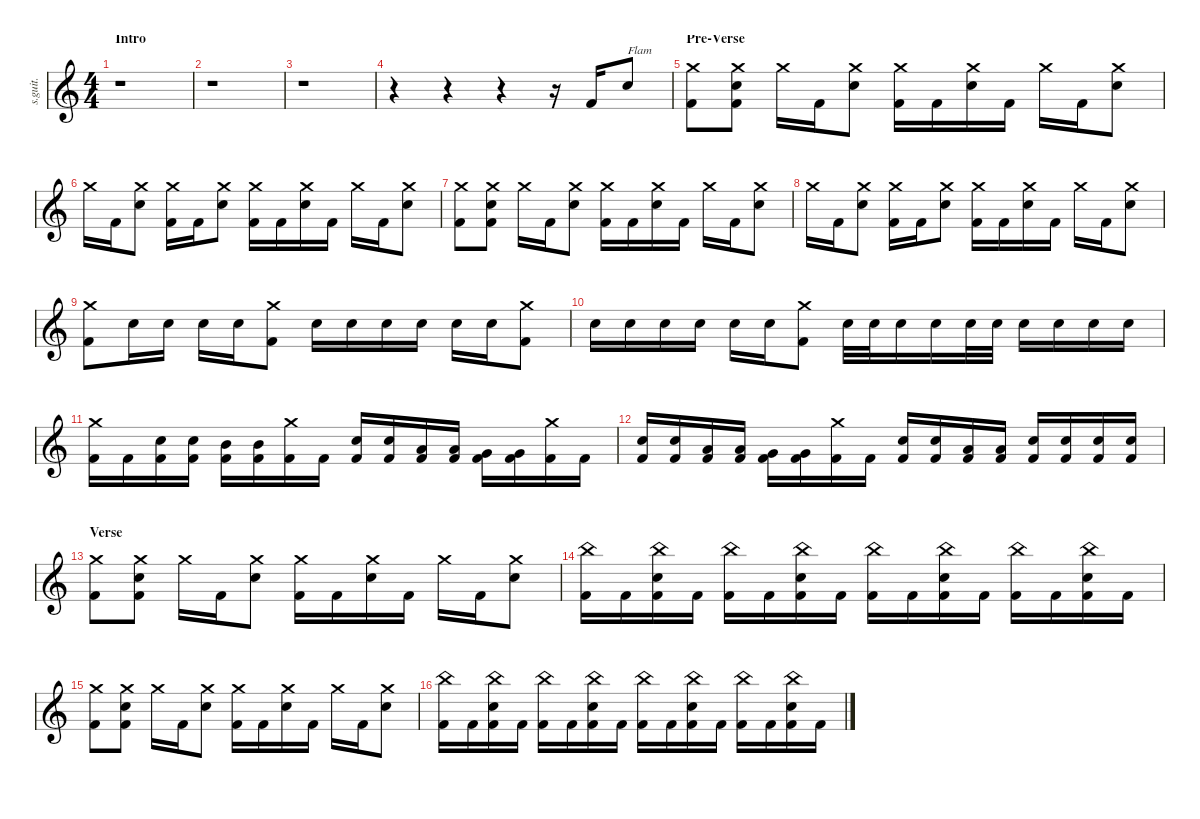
\defaultSystemsLayout 4
\hideDynamics
\bracketExtendMode nobrackets
\track ("The Rev" "s.guit.") {instrument percussion}
\staff {score}
\articulation defaults
\ts (4 4)
\beaming (8 2 2 2 2)
\section ("" "Intro")
\tempo (125 hide)
\clef g2
\ks c
r.1{dy fff} |
r.1 |
r.1 |
r.4 r.4 r.4 r.16 "Kick (hit) 2".16{lyrics (0 "") lyrics (1 "") lyrics (2 "") lyrics (3 "") lyrics (4 "")} "Electric Snare (hit)".8{txt "Flam" lyrics (0 "") lyrics (1 "") lyrics (2 "") lyrics (3 "") lyrics (4 "")} |
\section ("" "Pre-Verse")
("Crash medium (hit)" "Kick (hit) 2").8{lyrics (0 "") lyrics (1 "") lyrics (2 "") lyrics (3 "") lyrics (4 "")} ("Crash medium (hit)" "Electric Snare (hit)" "Kick (hit) 2").8{lyrics (0 "") lyrics (1 "") lyrics (2 "") lyrics (3 "") lyrics (4 "") dy f} "Crash medium (hit)".16{lyrics (0 "") lyrics (1 "") lyrics (2 "") lyrics (3 "") lyrics (4 "") dy mp} "Kick (hit) 2".16{lyrics (0 "") lyrics (1 "") lyrics (2 "") lyrics (3 "") lyrics (4 "") dy fff} ("Crash medium (hit)" "Electric Snare (hit)").8{lyrics (0 "") lyrics (1 "") lyrics (2 "") lyrics (3 "") lyrics (4 "") dy f} ("Crash medium (hit)" "Kick (hit) 2").16{lyrics (0 "") lyrics (1 "") lyrics (2 "") lyrics (3 "") lyrics (4 "") dy mp} "Kick (hit) 2".16{lyrics (0 "") lyrics (1 "") lyrics (2 "") lyrics (3 "") lyrics (4 "") dy fff} ("Crash medium (hit)" "Electric Snare (hit)").16{lyrics (0 "") lyrics (1 "") lyrics (2 "") lyrics (3 "") lyrics (4 "") dy f} "Kick (hit) 2".16{lyrics (0 "") lyrics (1 "") lyrics (2 "") lyrics (3 "") lyrics (4 "") dy fff} "Crash medium (hit)".16{lyrics (0 "") lyrics (1 "") lyrics (2 "") lyrics (3 "") lyrics (4 "") dy mp} "Kick (hit) 2".16{lyrics (0 "") lyrics (1 "") lyrics (2 "") lyrics (3 "") lyrics (4 "") dy fff} ("Crash medium (hit)" "Electric Snare (hit)").8{lyrics (0 "") lyrics (1 "") lyrics (2 "") lyrics (3 "") lyrics (4 "") dy f} |
"Crash medium (hit)".16{lyrics (0 "") lyrics (1 "") lyrics (2 "") lyrics (3 "") lyrics (4 "") dy mp} "Kick (hit) 2".16{lyrics (0 "") lyrics (1 "") lyrics (2 "") lyrics (3 "") lyrics (4 "") dy fff} ("Crash medium (hit)" "Electric Snare (hit)").8{lyrics (0 "") lyrics (1 "") lyrics (2 "") lyrics (3 "") lyrics (4 "") dy f} ("Crash medium (hit)" "Kick (hit) 2").16{lyrics (0 "") lyrics (1 "") lyrics (2 "") lyrics (3 "") lyrics (4 "") dy mp} "Kick (hit) 2".16{lyrics (0 "") lyrics (1 "") lyrics (2 "") lyrics (3 "") lyrics (4 "") dy fff} ("Crash medium (hit)" "Electric Snare (hit)").8{lyrics (0 "") lyrics (1 "") lyrics (2 "") lyrics (3 "") lyrics (4 "") dy f} ("Crash medium (hit)" "Kick (hit) 2").16{lyrics (0 "") lyrics (1 "") lyrics (2 "") lyrics (3 "") lyrics (4 "") dy mp} "Kick (hit) 2".16{lyrics (0 "") lyrics (1 "") lyrics (2 "") lyrics (3 "") lyrics (4 "") dy fff} ("Crash medium (hit)" "Electric Snare (hit)").16{lyrics (0 "") lyrics (1 "") lyrics (2 "") lyrics (3 "") lyrics (4 "") dy f} "Kick (hit) 2".16{lyrics (0 "") lyrics (1 "") lyrics (2 "") lyrics (3 "") lyrics (4 "") dy fff} "Crash medium (hit)".16{lyrics (0 "") lyrics (1 "") lyrics (2 "") lyrics (3 "") lyrics (4 "") dy mp} "Kick (hit) 2".16{lyrics (0 "") lyrics (1 "") lyrics (2 "") lyrics (3 "") lyrics (4 "") dy fff} ("Crash medium (hit)" "Electric Snare (hit)").8{lyrics (0 "") lyrics (1 "") lyrics (2 "") lyrics (3 "") lyrics (4 "") dy f} |
("Crash medium (hit)" "Kick (hit) 2").8{lyrics (0 "") lyrics (1 "") lyrics (2 "") lyrics (3 "") lyrics (4 "") dy mp} ("Crash medium (hit)" "Electric Snare (hit)" "Kick (hit) 2").8{lyrics (0 "") lyrics (1 "") lyrics (2 "") lyrics (3 "") lyrics (4 "") dy f} "Crash medium (hit)".16{lyrics (0 "") lyrics (1 "") lyrics (2 "") lyrics (3 "") lyrics (4 "") dy mp} "Kick (hit) 2".16{lyrics (0 "") lyrics (1 "") lyrics (2 "") lyrics (3 "") lyrics (4 "") dy fff} ("Crash medium (hit)" "Electric Snare (hit)").8{lyrics (0 "") lyrics (1 "") lyrics (2 "") lyrics (3 "") lyrics (4 "") dy f} ("Crash medium (hit)" "Kick (hit) 2").16{lyrics (0 "") lyrics (1 "") lyrics (2 "") lyrics (3 "") lyrics (4 "") dy mp} "Kick (hit) 2".16{lyrics (0 "") lyrics (1 "") lyrics (2 "") lyrics (3 "") lyrics (4 "") dy fff} ("Crash medium (hit)" "Electric Snare (hit)").16{lyrics (0 "") lyrics (1 "") lyrics (2 "") lyrics (3 "") lyrics (4 "") dy f} "Kick (hit) 2".16{lyrics (0 "") lyrics (1 "") lyrics (2 "") lyrics (3 "") lyrics (4 "") dy fff} "Crash medium (hit)".16{lyrics (0 "") lyrics (1 "") lyrics (2 "") lyrics (3 "") lyrics (4 "") dy mp} "Kick (hit) 2".16{lyrics (0 "") lyrics (1 "") lyrics (2 "") lyrics (3 "") lyrics (4 "") dy fff} ("Crash medium (hit)" "Electric Snare (hit)").8{lyrics (0 "") lyrics (1 "") lyrics (2 "") lyrics (3 "") lyrics (4 "") dy f} |
"Crash medium (hit)".16{lyrics (0 "") lyrics (1 "") lyrics (2 "") lyrics (3 "") lyrics (4 "") dy mp} "Kick (hit) 2".16{lyrics (0 "") lyrics (1 "") lyrics (2 "") lyrics (3 "") lyrics (4 "") dy fff} ("Crash medium (hit)" "Electric Snare (hit)").8{lyrics (0 "") lyrics (1 "") lyrics (2 "") lyrics (3 "") lyrics (4 "") dy f} ("Crash medium (hit)" "Kick (hit) 2").16{lyrics (0 "") lyrics (1 "") lyrics (2 "") lyrics (3 "") lyrics (4 "") dy mp} "Kick (hit) 2".16{lyrics (0 "") lyrics (1 "") lyrics (2 "") lyrics (3 "") lyrics (4 "") dy fff} ("Crash medium (hit)" "Electric Snare (hit)").8{lyrics (0 "") lyrics (1 "") lyrics (2 "") lyrics (3 "") lyrics (4 "") dy f} ("Crash medium (hit)" "Kick (hit) 2").16{lyrics (0 "") lyrics (1 "") lyrics (2 "") lyrics (3 "") lyrics (4 "") dy mp} "Kick (hit) 2".16{lyrics (0 "") lyrics (1 "") lyrics (2 "") lyrics (3 "") lyrics (4 "") dy fff} ("Crash medium (hit)" "Electric Snare (hit)").16{lyrics (0 "") lyrics (1 "") lyrics (2 "") lyrics (3 "") lyrics (4 "") dy f} "Kick (hit) 2".16{lyrics (0 "") lyrics (1 "") lyrics (2 "") lyrics (3 "") lyrics (4 "") dy fff} "Crash medium (hit)".16{lyrics (0 "") lyrics (1 "") lyrics (2 "") lyrics (3 "") lyrics (4 "") dy mp} "Kick (hit) 2".16{lyrics (0 "") lyrics (1 "") lyrics (2 "") lyrics (3 "") lyrics (4 "") dy fff} ("Crash medium (hit)" "Electric Snare (hit)").8{lyrics (0 "") lyrics (1 "") lyrics (2 "") lyrics (3 "") lyrics (4 "") dy f} |
("Crash medium (hit)" "Kick (hit) 2").8{lyrics (0 "") lyrics (1 "") lyrics (2 "") lyrics (3 "") lyrics (4 "")} "Electric Snare (hit)".16{lyrics (0 "") lyrics (1 "") lyrics (2 "") lyrics (3 "") lyrics (4 "") dy ff} "Electric Snare (hit)".16{lyrics (0 "") lyrics (1 "") lyrics (2 "") lyrics (3 "") lyrics (4 "")} "Electric Snare (hit)".16{lyrics (0 "") lyrics (1 "") lyrics (2 "") lyrics (3 "") lyrics (4 "")} "Electric Snare (hit)".16{lyrics (0 "") lyrics (1 "") lyrics (2 "") lyrics (3 "") lyrics (4 "")} ("Crash medium (hit)" "Kick (hit) 2").8{lyrics (0 "") lyrics (1 "") lyrics (2 "") lyrics (3 "") lyrics (4 "") dy f} "Electric Snare (hit)".16{lyrics (0 "") lyrics (1 "") lyrics (2 "") lyrics (3 "") lyrics (4 "") dy ff} "Electric Snare (hit)".16{lyrics (0 "") lyrics (1 "") lyrics (2 "") lyrics (3 "") lyrics (4 "")} "Electric Snare (hit)".16{lyrics (0 "") lyrics (1 "") lyrics (2 "") lyrics (3 "") lyrics (4 "")} "Electric Snare (hit)".16{lyrics (0 "") lyrics (1 "") lyrics (2 "") lyrics (3 "") lyrics (4 "")} "Electric Snare (hit)".16{lyrics (0 "") lyrics (1 "") lyrics (2 "") lyrics (3 "") lyrics (4 "")} "Electric Snare (hit)".16{lyrics (0 "") lyrics (1 "") lyrics (2 "") lyrics (3 "") lyrics (4 "")} ("Crash medium (hit)" "Kick (hit) 2").8{lyrics (0 "") lyrics (1 "") lyrics (2 "") lyrics (3 "") lyrics (4 "") dy f} |
"Electric Snare (hit)".16{lyrics (0 "") lyrics (1 "") lyrics (2 "") lyrics (3 "") lyrics (4 "") dy ff} "Electric Snare (hit)".16{lyrics (0 "") lyrics (1 "") lyrics (2 "") lyrics (3 "") lyrics (4 "")} "Electric Snare (hit)".16{lyrics (0 "") lyrics (1 "") lyrics (2 "") lyrics (3 "") lyrics (4 "")} "Electric Snare (hit)".16{lyrics (0 "") lyrics (1 "") lyrics (2 "") lyrics (3 "") lyrics (4 "")} "Electric Snare (hit)".16{lyrics (0 "") lyrics (1 "") lyrics (2 "") lyrics (3 "") lyrics (4 "")} "Electric Snare (hit)".16{lyrics (0 "") lyrics (1 "") lyrics (2 "") lyrics (3 "") lyrics (4 "")} ("Crash medium (hit)" "Kick (hit) 2").8{lyrics (0 "") lyrics (1 "") lyrics (2 "") lyrics (3 "") lyrics (4 "") dy f} "Electric Snare (hit)".32{lyrics (0 "") lyrics (1 "") lyrics (2 "") lyrics (3 "") lyrics (4 "") dy ff} "Electric Snare (hit)".32{lyrics (0 "") lyrics (1 "") lyrics (2 "") lyrics (3 "") lyrics (4 "")} "Electric Snare (hit)".16{lyrics (0 "") lyrics (1 "") lyrics (2 "") lyrics (3 "") lyrics (4 "")} "Electric Snare (hit)".16{lyrics (0 "") lyrics (1 "") lyrics (2 "") lyrics (3 "") lyrics (4 "")} "Electric Snare (hit)".32{lyrics (0 "") lyrics (1 "") lyrics (2 "") lyrics (3 "") lyrics (4 "")} "Electric Snare (hit)".32{lyrics (0 "") lyrics (1 "") lyrics (2 "") lyrics (3 "") lyrics (4 "")} "Electric Snare (hit)".16{lyrics (0 "") lyrics (1 "") lyrics (2 "") lyrics (3 "") lyrics (4 "")} "Electric Snare (hit)".16{lyrics (0 "") lyrics (1 "") lyrics (2 "") lyrics (3 "") lyrics (4 "")} "Electric Snare (hit)".16{lyrics (0 "") lyrics (1 "") lyrics (2 "") lyrics (3 "") lyrics (4 "")} "Electric Snare (hit)".16{lyrics (0 "") lyrics (1 "") lyrics (2 "") lyrics (3 "") lyrics (4 "")} |
("Crash medium (hit)" "Kick (hit) 2").16{lyrics (0 "") lyrics (1 "") lyrics (2 "") lyrics (3 "") lyrics (4 "") dy f} "Kick (hit) 2".16{lyrics (0 "") lyrics (1 "") lyrics (2 "") lyrics (3 "") lyrics (4 "") dy fff} ("Electric Snare (hit)" "Kick (hit) 2").16{lyrics (0 "") lyrics (1 "") lyrics (2 "") lyrics (3 "") lyrics (4 "")} ("Electric Snare (hit)" "Kick (hit) 2").16{lyrics (0 "") lyrics (1 "") lyrics (2 "") lyrics (3 "") lyrics (4 "")} ("Mid Tom (hit)" "Kick (hit) 2").16{lyrics (0 "") lyrics (1 "") lyrics (2 "") lyrics (3 "") lyrics (4 "")} ("Mid Tom (hit)" "Kick (hit) 2").16{lyrics (0 "") lyrics (1 "") lyrics (2 "") lyrics (3 "") lyrics (4 "")} ("Crash medium (hit)" "Kick (hit) 2").16{lyrics (0 "") lyrics (1 "") lyrics (2 "") lyrics (3 "") lyrics (4 "")} "Kick (hit) 2".16{lyrics (0 "") lyrics (1 "") lyrics (2 "") lyrics (3 "") lyrics (4 "")} ("Electric Snare (hit)" "Kick (hit) 2").16{lyrics (0 "") lyrics (1 "") lyrics (2 "") lyrics (3 "") lyrics (4 "")} ("Electric Snare (hit)" "Kick (hit) 2").16{lyrics (0 "") lyrics (1 "") lyrics (2 "") lyrics (3 "") lyrics (4 "")} ("Low Tom (hit)" "Kick (hit) 2").16{lyrics (0 "") lyrics (1 "") lyrics (2 "") lyrics (3 "") lyrics (4 "")} ("Low Tom (hit)" "Kick (hit) 2").16{lyrics (0 "") lyrics (1 "") lyrics (2 "") lyrics (3 "") lyrics (4 "")} ("Very Low Tom (hit)" "Kick (hit) 2").16{lyrics (0 "") lyrics (1 "") lyrics (2 "") lyrics (3 "") lyrics (4 "")} ("Very Low Tom (hit)" "Kick (hit) 2").16{lyrics (0 "") lyrics (1 "") lyrics (2 "") lyrics (3 "") lyrics (4 "")} ("Crash medium (hit)" "Kick (hit) 2").16{lyrics (0 "") lyrics (1 "") lyrics (2 "") lyrics (3 "") lyrics (4 "")} "Kick (hit) 2".16{lyrics (0 "") lyrics (1 "") lyrics (2 "") lyrics (3 "") lyrics (4 "")} |
("Electric Snare (hit)" "Kick (hit) 2").16{lyrics (0 "") lyrics (1 "") lyrics (2 "") lyrics (3 "") lyrics (4 "")} ("Electric Snare (hit)" "Kick (hit) 2").16{lyrics (0 "") lyrics (1 "") lyrics (2 "") lyrics (3 "") lyrics (4 "")} ("Low Tom (hit)" "Kick (hit) 2").16{lyrics (0 "") lyrics (1 "") lyrics (2 "") lyrics (3 "") lyrics (4 "")} ("Low Tom (hit)" "Kick (hit) 2").16{lyrics (0 "") lyrics (1 "") lyrics (2 "") lyrics (3 "") lyrics (4 "")} ("Very Low Tom (hit)" "Kick (hit) 2").16{lyrics (0 "") lyrics (1 "") lyrics (2 "") lyrics (3 "") lyrics (4 "")} ("Very Low Tom (hit)" "Kick (hit) 2").16{lyrics (0 "") lyrics (1 "") lyrics (2 "") lyrics (3 "") lyrics (4 "")} ("Crash medium (hit)" "Kick (hit) 2").16{lyrics (0 "") lyrics (1 "") lyrics (2 "") lyrics (3 "") lyrics (4 "")} "Kick (hit) 2".16{lyrics (0 "") lyrics (1 "") lyrics (2 "") lyrics (3 "") lyrics (4 "")} ("Electric Snare (hit)" "Kick (hit) 2").16{lyrics (0 "") lyrics (1 "") lyrics (2 "") lyrics (3 "") lyrics (4 "")} ("Electric Snare (hit)" "Kick (hit) 2").16{lyrics (0 "") lyrics (1 "") lyrics (2 "") lyrics (3 "") lyrics (4 "")} ("Low Floor Tom (hit)" "Kick (hit) 2").16{lyrics (0 "") lyrics (1 "") lyrics (2 "") lyrics (3 "") lyrics (4 "")} ("Low Floor Tom (hit)" "Kick (hit) 2").16{lyrics (0 "") lyrics (1 "") lyrics (2 "") lyrics (3 "") lyrics (4 "")} ("Electric Snare (hit)" "Kick (hit) 2").16{lyrics (0 "") lyrics (1 "") lyrics (2 "") lyrics (3 "") lyrics (4 "")} ("Electric Snare (hit)" "Kick (hit) 2").16{lyrics (0 "") lyrics (1 "") lyrics (2 "") lyrics (3 "") lyrics (4 "")} ("Electric Snare (hit)" "Kick (hit) 2").16{lyrics (0 "") lyrics (1 "") lyrics (2 "") lyrics (3 "") lyrics (4 "")} ("Electric Snare (hit)" "Kick (hit) 2").16{lyrics (0 "") lyrics (1 "") lyrics (2 "") lyrics (3 "") lyrics (4 "")} |
\section ("" "Verse")
("Crash medium (hit)" "Kick (hit) 2").8{lyrics (0 "") lyrics (1 "") lyrics (2 "") lyrics (3 "") lyrics (4 "")} ("Crash medium (hit)" "Electric Snare (hit)" "Kick (hit) 2").8{lyrics (0 "") lyrics (1 "") lyrics (2 "") lyrics (3 "") lyrics (4 "") dy f} "Crash medium (hit)".16{lyrics (0 "") lyrics (1 "") lyrics (2 "") lyrics (3 "") lyrics (4 "") dy mp} "Kick (hit) 2".16{lyrics (0 "") lyrics (1 "") lyrics (2 "") lyrics (3 "") lyrics (4 "") dy fff} ("Crash medium (hit)" "Electric Snare (hit)").8{lyrics (0 "") lyrics (1 "") lyrics (2 "") lyrics (3 "") lyrics (4 "") dy f} ("Crash medium (hit)" "Kick (hit) 2").16{lyrics (0 "") lyrics (1 "") lyrics (2 "") lyrics (3 "") lyrics (4 "") dy mp} "Kick (hit) 2".16{lyrics (0 "") lyrics (1 "") lyrics (2 "") lyrics (3 "") lyrics (4 "") dy fff} ("Crash medium (hit)" "Electric Snare (hit)").16{lyrics (0 "") lyrics (1 "") lyrics (2 "") lyrics (3 "") lyrics (4 "") dy f} "Kick (hit) 2".16{lyrics (0 "") lyrics (1 "") lyrics (2 "") lyrics (3 "") lyrics (4 "") dy fff} "Crash medium (hit)".16{lyrics (0 "") lyrics (1 "") lyrics (2 "") lyrics (3 "") lyrics (4 "") dy mp} "Kick (hit) 2".16{lyrics (0 "") lyrics (1 "") lyrics (2 "") lyrics (3 "") lyrics (4 "") dy fff} ("Crash medium (hit)" "Electric Snare (hit)").8{lyrics (0 "") lyrics (1 "") lyrics (2 "") lyrics (3 "") lyrics (4 "") dy f} |
("China (hit)" "Kick (hit) 2").16{lyrics (0 "") lyrics (1 "") lyrics (2 "") lyrics (3 "") lyrics (4 "")} "Kick (hit) 2".16{lyrics (0 "") lyrics (1 "") lyrics (2 "") lyrics (3 "") lyrics (4 "") dy fff} ("China (hit)" "Electric Snare (hit)" "Kick (hit) 2").16{lyrics (0 "") lyrics (1 "") lyrics (2 "") lyrics (3 "") lyrics (4 "") dy f} "Kick (hit) 2".16{lyrics (0 "") lyrics (1 "") lyrics (2 "") lyrics (3 "") lyrics (4 "") dy fff} ("China (hit)" "Kick (hit) 2").16{lyrics (0 "") lyrics (1 "") lyrics (2 "") lyrics (3 "") lyrics (4 "")} "Kick (hit) 2".16{lyrics (0 "") lyrics (1 "") lyrics (2 "") lyrics (3 "") lyrics (4 "")} ("China (hit)" "Electric Snare (hit)" "Kick (hit) 2").16{lyrics (0 "") lyrics (1 "") lyrics (2 "") lyrics (3 "") lyrics (4 "") dy f} "Kick (hit) 2".16{lyrics (0 "") lyrics (1 "") lyrics (2 "") lyrics (3 "") lyrics (4 "") dy fff} ("China (hit)" "Kick (hit) 2").16{lyrics (0 "") lyrics (1 "") lyrics (2 "") lyrics (3 "") lyrics (4 "")} "Kick (hit) 2".16{lyrics (0 "") lyrics (1 "") lyrics (2 "") lyrics (3 "") lyrics (4 "")} ("China (hit)" "Electric Snare (hit)" "Kick (hit) 2").16{lyrics (0 "") lyrics (1 "") lyrics (2 "") lyrics (3 "") lyrics (4 "") dy f} "Kick (hit) 2".16{lyrics (0 "") lyrics (1 "") lyrics (2 "") lyrics (3 "") lyrics (4 "") dy fff} ("China (hit)" "Kick (hit) 2").16{lyrics (0 "") lyrics (1 "") lyrics (2 "") lyrics (3 "") lyrics (4 "")} "Kick (hit) 2".16{lyrics (0 "") lyrics (1 "") lyrics (2 "") lyrics (3 "") lyrics (4 "")} ("China (hit)" "Electric Snare (hit)" "Kick (hit) 2").16{lyrics (0 "") lyrics (1 "") lyrics (2 "") lyrics (3 "") lyrics (4 "") dy f} "Kick (hit) 2".16{lyrics (0 "") lyrics (1 "") lyrics (2 "") lyrics (3 "") lyrics (4 "") dy fff} |
("Crash medium (hit)" "Kick (hit) 2").8{lyrics (0 "") lyrics (1 "") lyrics (2 "") lyrics (3 "") lyrics (4 "")} ("Crash medium (hit)" "Electric Snare (hit)" "Kick (hit) 2").8{lyrics (0 "") lyrics (1 "") lyrics (2 "") lyrics (3 "") lyrics (4 "") dy f} "Crash medium (hit)".16{lyrics (0 "") lyrics (1 "") lyrics (2 "") lyrics (3 "") lyrics (4 "") dy mp} "Kick (hit) 2".16{lyrics (0 "") lyrics (1 "") lyrics (2 "") lyrics (3 "") lyrics (4 "") dy fff} ("Crash medium (hit)" "Electric Snare (hit)").8{lyrics (0 "") lyrics (1 "") lyrics (2 "") lyrics (3 "") lyrics (4 "") dy f} ("Crash medium (hit)" "Kick (hit) 2").16{lyrics (0 "") lyrics (1 "") lyrics (2 "") lyrics (3 "") lyrics (4 "") dy mp} "Kick (hit) 2".16{lyrics (0 "") lyrics (1 "") lyrics (2 "") lyrics (3 "") lyrics (4 "") dy fff} ("Crash medium (hit)" "Electric Snare (hit)").16{lyrics (0 "") lyrics (1 "") lyrics (2 "") lyrics (3 "") lyrics (4 "") dy f} "Kick (hit) 2".16{lyrics (0 "") lyrics (1 "") lyrics (2 "") lyrics (3 "") lyrics (4 "") dy fff} "Crash medium (hit)".16{lyrics (0 "") lyrics (1 "") lyrics (2 "") lyrics (3 "") lyrics (4 "") dy mp} "Kick (hit) 2".16{lyrics (0 "") lyrics (1 "") lyrics (2 "") lyrics (3 "") lyrics (4 "") dy fff} ("Crash medium (hit)" "Electric Snare (hit)").8{lyrics (0 "") lyrics (1 "") lyrics (2 "") lyrics (3 "") lyrics (4 "") dy f} |
("China (hit)" "Kick (hit) 2").16{lyrics (0 "") lyrics (1 "") lyrics (2 "") lyrics (3 "") lyrics (4 "")} "Kick (hit) 2".16{lyrics (0 "") lyrics (1 "") lyrics (2 "") lyrics (3 "") lyrics (4 "") dy fff} ("China (hit)" "Electric Snare (hit)" "Kick (hit) 2").16{lyrics (0 "") lyrics (1 "") lyrics (2 "") lyrics (3 "") lyrics (4 "") dy f} "Kick (hit) 2".16{lyrics (0 "") lyrics (1 "") lyrics (2 "") lyrics (3 "") lyrics (4 "") dy fff} ("China (hit)" "Kick (hit) 2").16{lyrics (0 "") lyrics (1 "") lyrics (2 "") lyrics (3 "") lyrics (4 "")} "Kick (hit) 2".16{lyrics (0 "") lyrics (1 "") lyrics (2 "") lyrics (3 "") lyrics (4 "")} ("China (hit)" "Electric Snare (hit)" "Kick (hit) 2").16{lyrics (0 "") lyrics (1 "") lyrics (2 "") lyrics (3 "") lyrics (4 "") dy f} "Kick (hit) 2".16{lyrics (0 "") lyrics (1 "") lyrics (2 "") lyrics (3 "") lyrics (4 "") dy fff} ("China (hit)" "Kick (hit) 2").16{lyrics (0 "") lyrics (1 "") lyrics (2 "") lyrics (3 "") lyrics (4 "")} "Kick (hit) 2".16{lyrics (0 "") lyrics (1 "") lyrics (2 "") lyrics (3 "") lyrics (4 "")} ("China (hit)" "Electric Snare (hit)" "Kick (hit) 2").16{lyrics (0 "") lyrics (1 "") lyrics (2 "") lyrics (3 "") lyrics (4 "") dy f} "Kick (hit) 2".16{lyrics (0 "") lyrics (1 "") lyrics (2 "") lyrics (3 "") lyrics (4 "") dy fff} ("China (hit)" "Kick (hit) 2").16{lyrics (0 "") lyrics (1 "") lyrics (2 "") lyrics (3 "") lyrics (4 "")} "Kick (hit) 2".16{lyrics (0 "") lyrics (1 "") lyrics (2 "") lyrics (3 "") lyrics (4 "")} ("China (hit)" "Electric Snare (hit)" "Kick (hit) 2").16{lyrics (0 "") lyrics (1 "") lyrics (2 "") lyrics (3 "") lyrics (4 "") dy f} "Kick (hit) 2".16{lyrics (0 "") lyrics (1 "") lyrics (2 "") lyrics (3 "") lyrics (4 "") dy fff}
